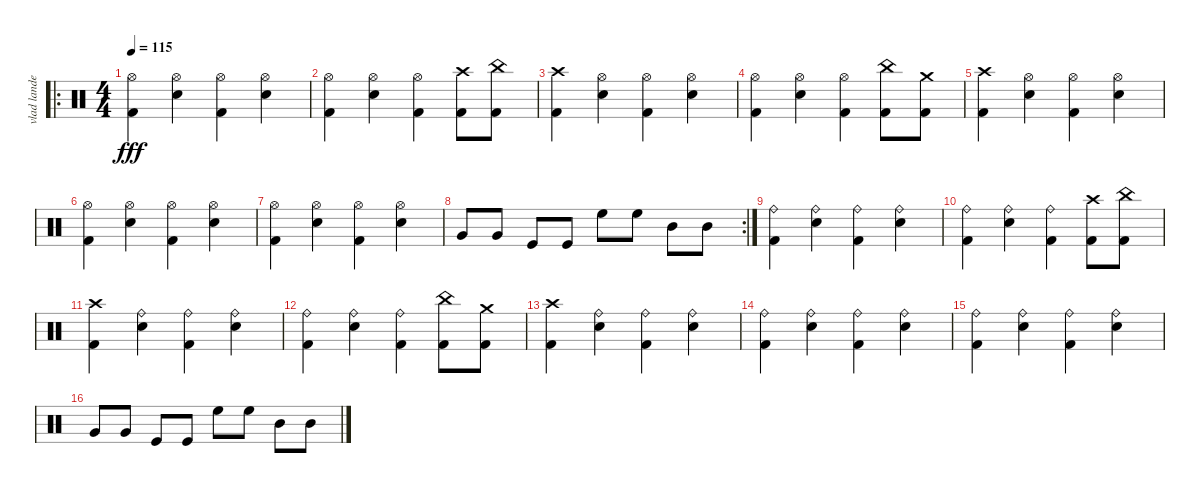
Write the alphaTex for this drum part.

\track ("vlad landeros" "vlad lande") {instrument percussion}
\staff {score}
\articulation defaults
\ro
\ts (4 4)
\tempo 115
\clef neutral
\ks c
("Hi-Hat (open)" "Kick (hit) 2").4{dy fff} ("Hi-Hat (open)" "Electric Snare (hit)").4 ("Hi-Hat (open)" "Kick (hit) 2").4 ("Hi-Hat (open)" "Electric Snare (hit)").4 |
("Hi-Hat (open)" "Kick (hit) 2").4 ("Hi-Hat (open)" "Electric Snare (hit)").4 ("Hi-Hat (open)" "Kick (hit) 2").4 ("Crash high (hit)" "Kick (hit) 2").8 ("China (hit)" "Kick (hit) 2").8 |
("Crash high (hit)" "Kick (hit) 2").4 ("Hi-Hat (open)" "Electric Snare (hit)").4 ("Hi-Hat (open)" "Kick (hit) 2").4 ("Hi-Hat (open)" "Electric Snare (hit)").4 |
("Hi-Hat (open)" "Kick (hit) 2").4 ("Hi-Hat (open)" "Electric Snare (hit)").4 ("Hi-Hat (open)" "Kick (hit) 2").4 ("China (hit)" "Kick (hit) 2").8 ("Crash medium (hit)" "Kick (hit) 2").8 |
("Crash high (hit)" "Kick (hit) 2").4 ("Hi-Hat (open)" "Electric Snare (hit)").4 ("Hi-Hat (open)" "Kick (hit) 2").4 ("Hi-Hat (open)" "Electric Snare (hit)").4 |
("Hi-Hat (open)" "Kick (hit) 2").4 ("Hi-Hat (open)" "Electric Snare (hit)").4 ("Hi-Hat (open)" "Kick (hit) 2").4 ("Hi-Hat (open)" "Electric Snare (hit)").4 |
("Hi-Hat (open)" "Kick (hit) 2").4 ("Hi-Hat (open)" "Electric Snare (hit)").4 ("Hi-Hat (open)" "Kick (hit) 2").4 ("Hi-Hat (open)" "Electric Snare (hit)").4 |
\rc 2 "Very Low Tom (hit)".8 "Very Low Tom (hit)".8 "Kick (hit)".8 "Kick (hit)".8 "High Floor Tom (hit)".8 "High Floor Tom (hit)".8 "Mid Tom (hit)".8 "Mid Tom (hit)".8
|
("Ride (bell)" "Kick (hit) 2").4 ("Ride (bell)" "Electric Snare (hit)").4 ("Ride (bell)" "Kick (hit) 2").4 ("Ride (bell)" "Electric Snare (hit)").4 |
("Ride (bell)" "Kick (hit) 2").4 ("Ride (bell)" "Electric Snare (hit)").4 ("Ride (bell)" "Kick (hit) 2").4 ("Crash high (hit)" "Kick (hit) 2").8 ("China (hit)" "Kick (hit) 2").8 |
("Crash high (hit)" "Kick (hit) 2").4 ("Ride (bell)" "Electric Snare (hit)").4 ("Ride (bell)" "Kick (hit) 2").4 ("Ride (bell)" "Electric Snare (hit)").4 |
("Ride (bell)" "Kick (hit) 2").4 ("Ride (bell)" "Electric Snare (hit)").4 ("Ride (bell)" "Kick (hit) 2").4 ("China (hit)" "Kick (hit) 2").8 ("Crash medium (hit)" "Kick (hit) 2").8 |
("Crash high (hit)" "Kick (hit) 2").4 ("Ride (bell)" "Electric Snare (hit)").4 ("Ride (bell)" "Kick (hit) 2").4 ("Ride (bell)" "Electric Snare (hit)").4 |
("Ride (bell)" "Kick (hit) 2").4 ("Ride (bell)" "Electric Snare (hit)").4 ("Ride (bell)" "Kick (hit) 2").4 ("Ride (bell)" "Electric Snare (hit)").4 |
("Ride (bell)" "Kick (hit) 2").4 ("Ride (bell)" "Electric Snare (hit)").4 ("Ride (bell)" "Kick (hit) 2").4 ("Ride (bell)" "Electric Snare (hit)").4 |
"Very Low Tom (hit)".8 "Very Low Tom (hit)".8 "Kick (hit)".8 "Kick (hit)".8 "High Floor Tom (hit)".8 "High Floor Tom (hit)".8 "Mid Tom (hit)".8 "Mid Tom (hit)".8
